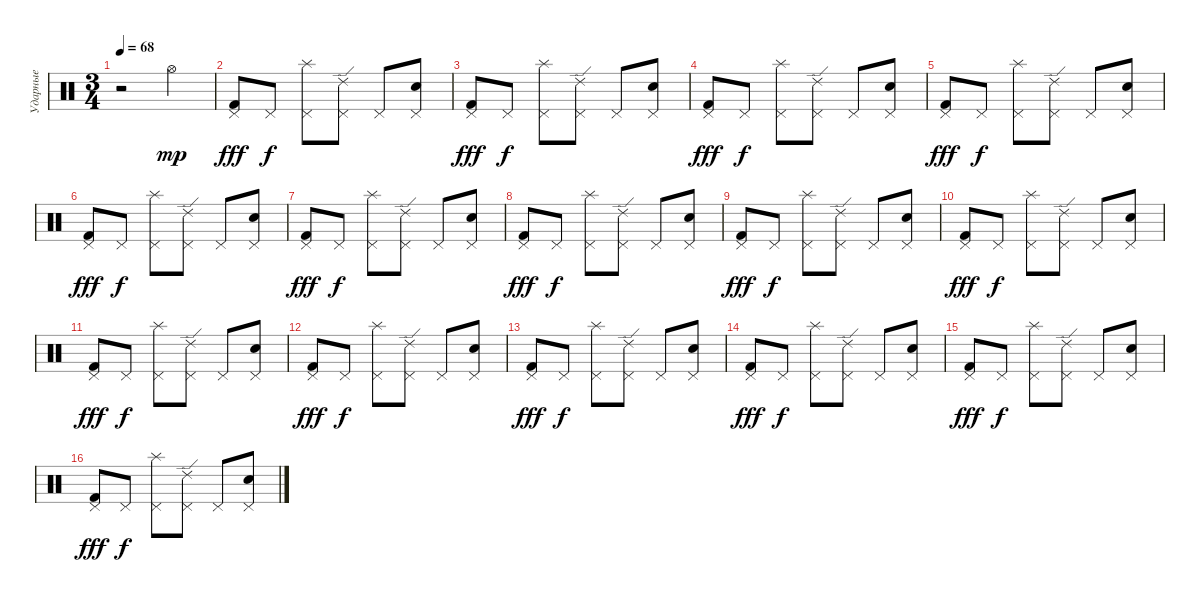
\track ("Ударные" "Ударные") {instrument percussion}
\staff {score}
\articulation defaults
\ts (3 4)
\tempo 68
\clef neutral
\ks c
r.2{dy mp} "Hi-Hat (open)".4 |
("Pedal Hi-Hat (hit)" "Kick (hit) 2").8{dy fff} "Pedal Hi-Hat (hit)".8{dy f} ("Pedal Hi-Hat (hit)" "Splash (hit)").8 ("Pedal Hi-Hat (hit)" "Ride (edge) 2").8 "Pedal Hi-Hat (hit)".8 ("Pedal Hi-Hat (hit)" "Snare (hit) 2").8 |
("Pedal Hi-Hat (hit)" "Kick (hit) 2").8{dy fff} "Pedal Hi-Hat (hit)".8{dy f} ("Pedal Hi-Hat (hit)" "Splash (hit)").8 ("Pedal Hi-Hat (hit)" "Ride (edge) 2").8 "Pedal Hi-Hat (hit)".8 ("Pedal Hi-Hat (hit)" "Snare (hit) 2").8 |
("Pedal Hi-Hat (hit)" "Kick (hit) 2").8{dy fff} "Pedal Hi-Hat (hit)".8{dy f} ("Pedal Hi-Hat (hit)" "Splash (hit)").8 ("Pedal Hi-Hat (hit)" "Ride (edge) 2").8 "Pedal Hi-Hat (hit)".8 ("Pedal Hi-Hat (hit)" "Snare (hit) 2").8 |
("Pedal Hi-Hat (hit)" "Kick (hit) 2").8{dy fff} "Pedal Hi-Hat (hit)".8{dy f} ("Pedal Hi-Hat (hit)" "Splash (hit)").8 ("Pedal Hi-Hat (hit)" "Ride (edge) 2").8 "Pedal Hi-Hat (hit)".8 ("Pedal Hi-Hat (hit)" "Snare (hit) 2").8 |
("Pedal Hi-Hat (hit)" "Kick (hit) 2").8{dy fff} "Pedal Hi-Hat (hit)".8{dy f} ("Pedal Hi-Hat (hit)" "Splash (hit)").8 ("Pedal Hi-Hat (hit)" "Ride (edge) 2").8 "Pedal Hi-Hat (hit)".8 ("Pedal Hi-Hat (hit)" "Snare (hit) 2").8 |
("Pedal Hi-Hat (hit)" "Kick (hit) 2").8{dy fff} "Pedal Hi-Hat (hit)".8{dy f} ("Pedal Hi-Hat (hit)" "Splash (hit)").8 ("Pedal Hi-Hat (hit)" "Ride (edge) 2").8 "Pedal Hi-Hat (hit)".8 ("Pedal Hi-Hat (hit)" "Snare (hit) 2").8 |
("Pedal Hi-Hat (hit)" "Kick (hit) 2").8{dy fff} "Pedal Hi-Hat (hit)".8{dy f} ("Pedal Hi-Hat (hit)" "Splash (hit)").8 ("Pedal Hi-Hat (hit)" "Ride (edge) 2").8 "Pedal Hi-Hat (hit)".8 ("Pedal Hi-Hat (hit)" "Snare (hit) 2").8 |
("Pedal Hi-Hat (hit)" "Kick (hit) 2").8{dy fff} "Pedal Hi-Hat (hit)".8{dy f} ("Pedal Hi-Hat (hit)" "Splash (hit)").8 ("Pedal Hi-Hat (hit)" "Ride (edge) 2").8 "Pedal Hi-Hat (hit)".8 ("Pedal Hi-Hat (hit)" "Snare (hit) 2").8 |
("Pedal Hi-Hat (hit)" "Kick (hit) 2").8{dy fff} "Pedal Hi-Hat (hit)".8{dy f} ("Pedal Hi-Hat (hit)" "Splash (hit)").8 ("Pedal Hi-Hat (hit)" "Ride (edge) 2").8 "Pedal Hi-Hat (hit)".8 ("Pedal Hi-Hat (hit)" "Snare (hit) 2").8 |
("Pedal Hi-Hat (hit)" "Kick (hit) 2").8{dy fff} "Pedal Hi-Hat (hit)".8{dy f} ("Pedal Hi-Hat (hit)" "Splash (hit)").8 ("Pedal Hi-Hat (hit)" "Ride (edge) 2").8 "Pedal Hi-Hat (hit)".8 ("Pedal Hi-Hat (hit)" "Snare (hit) 2").8 |
("Pedal Hi-Hat (hit)" "Kick (hit) 2").8{dy fff} "Pedal Hi-Hat (hit)".8{dy f} ("Pedal Hi-Hat (hit)" "Splash (hit)").8 ("Pedal Hi-Hat (hit)" "Ride (edge) 2").8 "Pedal Hi-Hat (hit)".8 ("Pedal Hi-Hat (hit)" "Snare (hit) 2").8 |
("Pedal Hi-Hat (hit)" "Kick (hit) 2").8{dy fff} "Pedal Hi-Hat (hit)".8{dy f} ("Pedal Hi-Hat (hit)" "Splash (hit)").8 ("Pedal Hi-Hat (hit)" "Ride (edge) 2").8 "Pedal Hi-Hat (hit)".8 ("Pedal Hi-Hat (hit)" "Snare (hit) 2").8 |
("Pedal Hi-Hat (hit)" "Kick (hit) 2").8{dy fff} "Pedal Hi-Hat (hit)".8{dy f} ("Pedal Hi-Hat (hit)" "Splash (hit)").8 ("Pedal Hi-Hat (hit)" "Ride (edge) 2").8 "Pedal Hi-Hat (hit)".8 ("Pedal Hi-Hat (hit)" "Snare (hit) 2").8 |
("Pedal Hi-Hat (hit)" "Kick (hit) 2").8{dy fff} "Pedal Hi-Hat (hit)".8{dy f} ("Pedal Hi-Hat (hit)" "Splash (hit)").8 ("Pedal Hi-Hat (hit)" "Ride (edge) 2").8 "Pedal Hi-Hat (hit)".8 ("Pedal Hi-Hat (hit)" "Snare (hit) 2").8 |
("Pedal Hi-Hat (hit)" "Kick (hit) 2").8{dy fff} "Pedal Hi-Hat (hit)".8{dy f} ("Pedal Hi-Hat (hit)" "Splash (hit)").8 ("Pedal Hi-Hat (hit)" "Ride (edge) 2").8 "Pedal Hi-Hat (hit)".8 ("Pedal Hi-Hat (hit)" "Snare (hit) 2").8
